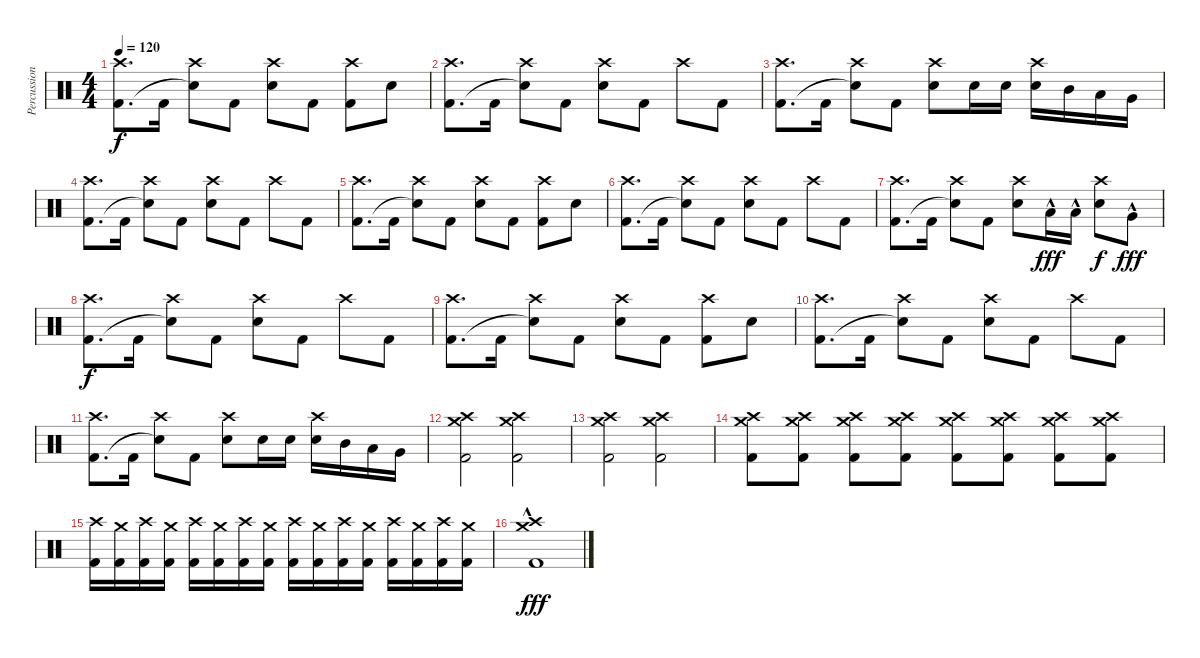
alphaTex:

\track ("Percussion" "Percussion") {instrument percussion}
\staff {score}
\articulation defaults
\ts (4 4)
\tempo 120
\clef neutral
\ks c
("Crash high (hit)" "Kick (hit) 2").8{d dy f} "Kick (hit) 2".16 ("Crash high (hit)" "Snare (hit)"{t}).8 "Kick (hit) 2".8 ("Crash high (hit)" "Snare (hit) 2").8 "Kick (hit) 2".8 ("Crash high (hit)" "Kick (hit) 2").8 "Snare (hit) 2".8 |
("Crash high (hit)" "Kick (hit) 2").8{d} "Kick (hit) 2".16 ("Crash high (hit)" "Snare (hit)"{t}).8 "Kick (hit) 2".8 ("Crash high (hit)" "Snare (hit) 2").8 "Kick (hit) 2".8 "Crash high (hit)".8 "Kick (hit) 2".8 |
("Crash high (hit)" "Kick (hit) 2").8{d} "Kick (hit) 2".16 ("Crash high (hit)" "Snare (hit)"{t}).8 "Kick (hit) 2".8 ("Crash high (hit)" "Snare (hit) 2").8 "Snare (hit) 2".16 "Snare (hit) 2".16 ("Crash high (hit)" "Snare (hit) 2").16 "Mid Tom (hit)".16 "Low Tom (hit)".16 "Very Low Tom (hit)".16 |
("Crash high (hit)" "Kick (hit) 2").8{d} "Kick (hit) 2".16 ("Crash high (hit)" "Snare (hit)"{t}).8 "Kick (hit) 2".8 ("Crash high (hit)" "Snare (hit) 2").8 "Kick (hit) 2".8 "Crash high (hit)".8 "Kick (hit) 2".8 |
("Crash high (hit)" "Kick (hit) 2").8{d} "Kick (hit) 2".16 ("Crash high (hit)" "Snare (hit)"{t}).8 "Kick (hit) 2".8 ("Crash high (hit)" "Snare (hit) 2").8 "Kick (hit) 2".8 ("Crash high (hit)" "Kick (hit) 2").8 "Snare (hit) 2".8 |
("Crash high (hit)" "Kick (hit) 2").8{d} "Kick (hit) 2".16 ("Crash high (hit)" "Snare (hit)"{t}).8 "Kick (hit) 2".8 ("Crash high (hit)" "Snare (hit) 2").8 "Kick (hit) 2".8 "Crash high (hit)".8 "Kick (hit) 2".8 |
("Crash high (hit)" "Kick (hit) 2").8{d} "Kick (hit) 2".16 ("Crash high (hit)" "Snare (hit)"{t}).8 "Kick (hit) 2".8 ("Crash high (hit)" "Snare (hit) 2").8 "Low Tom (hit)"{hac}.16{dy fff} "Low Tom (hit)"{hac}.16 ("Crash high (hit)" "Snare (hit) 2").8{dy f} "Very Low Tom (hit)"{hac}.8{dy fff} |
("Crash high (hit)" "Kick (hit) 2").8{d dy f} "Kick (hit) 2".16 ("Crash high (hit)" "Snare (hit)"{t}).8 "Kick (hit) 2".8 ("Crash high (hit)" "Snare (hit) 2").8 "Kick (hit) 2".8 "Crash high (hit)".8 "Kick (hit) 2".8 |
("Crash high (hit)" "Kick (hit) 2").8{d} "Kick (hit) 2".16 ("Crash high (hit)" "Snare (hit)"{t}).8 "Kick (hit) 2".8 ("Crash high (hit)" "Snare (hit) 2").8 "Kick (hit) 2".8 ("Crash high (hit)" "Kick (hit) 2").8 "Snare (hit) 2".8 |
("Crash high (hit)" "Kick (hit) 2").8{d} "Kick (hit) 2".16 ("Crash high (hit)" "Snare (hit)"{t}).8 "Kick (hit) 2".8 ("Crash high (hit)" "Snare (hit) 2").8 "Kick (hit) 2".8 "Crash high (hit)".8 "Kick (hit) 2".8 |
("Crash high (hit)" "Kick (hit) 2").8{d} "Kick (hit) 2".16 ("Crash high (hit)" "Snare (hit)"{t}).8 "Kick (hit) 2".8 ("Crash high (hit)" "Snare (hit) 2").8 "Snare (hit) 2".16 "Snare (hit) 2".16 ("Crash high (hit)" "Snare (hit) 2").16 "Mid Tom (hit)".16 "Low Tom (hit)".16 "Very Low Tom (hit)".16 |
("Crash high (hit)" "Crash medium (hit)" "Kick (hit) 2").2 ("Crash high (hit)" "Crash medium (hit)" "Kick (hit) 2").2 |
("Crash high (hit)" "Crash medium (hit)" "Kick (hit) 2").2 ("Crash high (hit)" "Crash medium (hit)" "Kick (hit) 2").2 |
("Crash high (hit)" "Crash medium (hit)" "Kick (hit) 2").8 ("Crash high (hit)" "Crash medium (hit)" "Kick (hit) 2").8 ("Crash high (hit)" "Crash medium (hit)" "Kick (hit) 2").8 ("Crash high (hit)" "Crash medium (hit)" "Kick (hit) 2").8 ("Crash high (hit)" "Crash medium (hit)" "Kick (hit) 2").8 ("Crash high (hit)" "Crash medium (hit)" "Kick (hit) 2").8 ("Crash high (hit)" "Crash medium (hit)" "Kick (hit) 2").8 ("Crash high (hit)" "Crash medium (hit)" "Kick (hit) 2").8 |
("Crash high (hit)" "Kick (hit) 2").16 ("Crash medium (hit)" "Kick (hit) 2").16 ("Crash high (hit)" "Kick (hit) 2").16 ("Crash medium (hit)" "Kick (hit) 2").16 ("Crash high (hit)" "Kick (hit) 2").16 ("Crash medium (hit)" "Kick (hit) 2").16 ("Crash high (hit)" "Kick (hit) 2").16 ("Crash medium (hit)" "Kick (hit) 2").16 ("Crash high (hit)" "Kick (hit) 2").16 ("Crash medium (hit)" "Kick (hit) 2").16 ("Crash high (hit)" "Kick (hit) 2").16 ("Crash medium (hit)" "Kick (hit) 2").16 ("Crash high (hit)" "Kick (hit) 2").16 ("Crash medium (hit)" "Kick (hit) 2").16 ("Crash high (hit)" "Kick (hit) 2").16 ("Crash medium (hit)" "Kick (hit) 2").16 |
("Crash high (hit)"{hac} "Crash medium (hit)"{hac} "Kick (hit) 2").1{dy fff}
